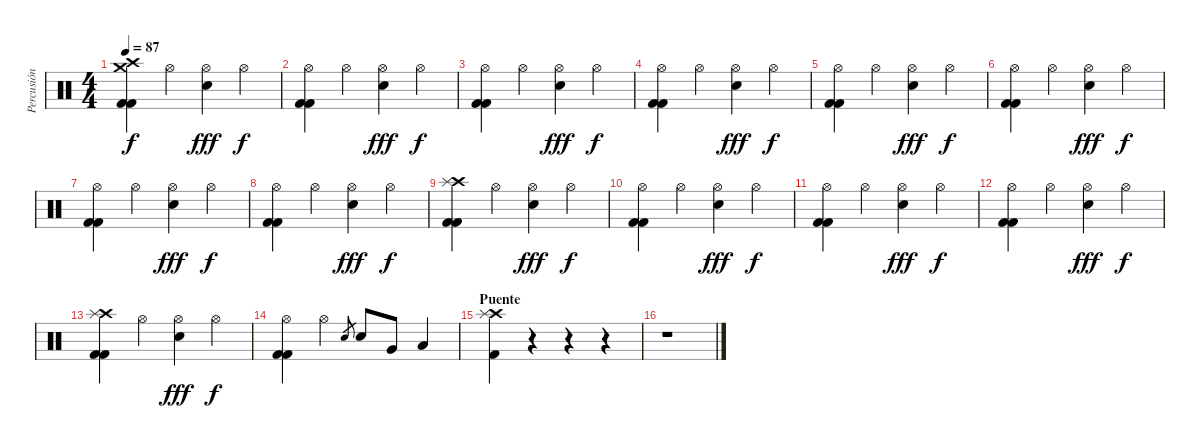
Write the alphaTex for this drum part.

\track ("Percusión" "Percusión") {instrument percussion}
\staff {score}
\articulation defaults
\ts (4 4)
\tempo 87
\clef neutral
\ks c
("Crash medium (hit)" "Crash high (hit)" "Kick (hit) 2" "Kick (hit) 2").4{dy f} "Hi-Hat (open)".4 ("Hi-Hat (open)" "Snare (hit) 2").4{dy fff} "Hi-Hat (open)".4{dy f} |
("Hi-Hat (open)" "Kick (hit) 2" "Kick (hit) 2").4 "Hi-Hat (open)".4 ("Hi-Hat (open)" "Snare (hit) 2").4{dy fff} "Hi-Hat (open)".4{dy f} |
("Hi-Hat (open)" "Kick (hit) 2" "Kick (hit) 2").4 "Hi-Hat (open)".4 ("Hi-Hat (open)" "Snare (hit) 2").4{dy fff} "Hi-Hat (open)".4{dy f} |
("Hi-Hat (open)" "Kick (hit) 2" "Kick (hit) 2").4 "Hi-Hat (open)".4 ("Hi-Hat (open)" "Snare (hit) 2").4{dy fff} "Hi-Hat (open)".4{dy f} |
("Hi-Hat (open)" "Kick (hit) 2" "Kick (hit) 2").4 "Hi-Hat (open)".4 ("Hi-Hat (open)" "Snare (hit) 2").4{dy fff} "Hi-Hat (open)".4{dy f} |
("Hi-Hat (open)" "Kick (hit) 2" "Kick (hit) 2").4 "Hi-Hat (open)".4 ("Hi-Hat (open)" "Snare (hit) 2").4{dy fff} "Hi-Hat (open)".4{dy f} |
("Hi-Hat (open)" "Kick (hit) 2" "Kick (hit) 2").4 "Hi-Hat (open)".4 ("Hi-Hat (open)" "Snare (hit) 2").4{dy fff} "Hi-Hat (open)".4{dy f} |
("Hi-Hat (open)" "Kick (hit) 2" "Kick (hit) 2").4 "Hi-Hat (open)".4 ("Hi-Hat (open)" "Snare (hit) 2").4{dy fff} "Hi-Hat (open)".4{dy f} |
("Crash high (hit)" "Splash (hit)" "Kick (hit) 2" "Kick (hit) 2").4 "Hi-Hat (open)".4 ("Hi-Hat (open)" "Snare (hit) 2").4{dy fff} "Hi-Hat (open)".4{dy f} |
("Hi-Hat (open)" "Kick (hit) 2" "Kick (hit) 2").4 "Hi-Hat (open)".4 ("Hi-Hat (open)" "Snare (hit) 2").4{dy fff} "Hi-Hat (open)".4{dy f} |
("Hi-Hat (open)" "Kick (hit) 2" "Kick (hit) 2").4 "Hi-Hat (open)".4 ("Hi-Hat (open)" "Snare (hit) 2").4{dy fff} "Hi-Hat (open)".4{dy f} |
("Hi-Hat (open)" "Kick (hit) 2" "Kick (hit) 2").4 "Hi-Hat (open)".4 ("Hi-Hat (open)" "Snare (hit) 2").4{dy fff} "Hi-Hat (open)".4{dy f} |
("Crash high (hit)" "Splash (hit)" "Kick (hit) 2" "Kick (hit) 2").4 "Hi-Hat (open)".4 ("Hi-Hat (open)" "Snare (hit) 2").4{dy fff} "Hi-Hat (open)".4{dy f} |
("Hi-Hat (open)" "Kick (hit) 2" "Kick (hit) 2").4 "Hi-Hat (open)".4 "Snare (hit) 2".8{gr} "Snare (hit) 2".8 "Very Low Tom (hit)".8 "Low Floor Tom (hit)".4 |
\section ("" "Puente")
("Crash high (hit)" "Splash (hit)" "Kick (hit) 2").4 r.4 r.4 r.4 |
r.1
